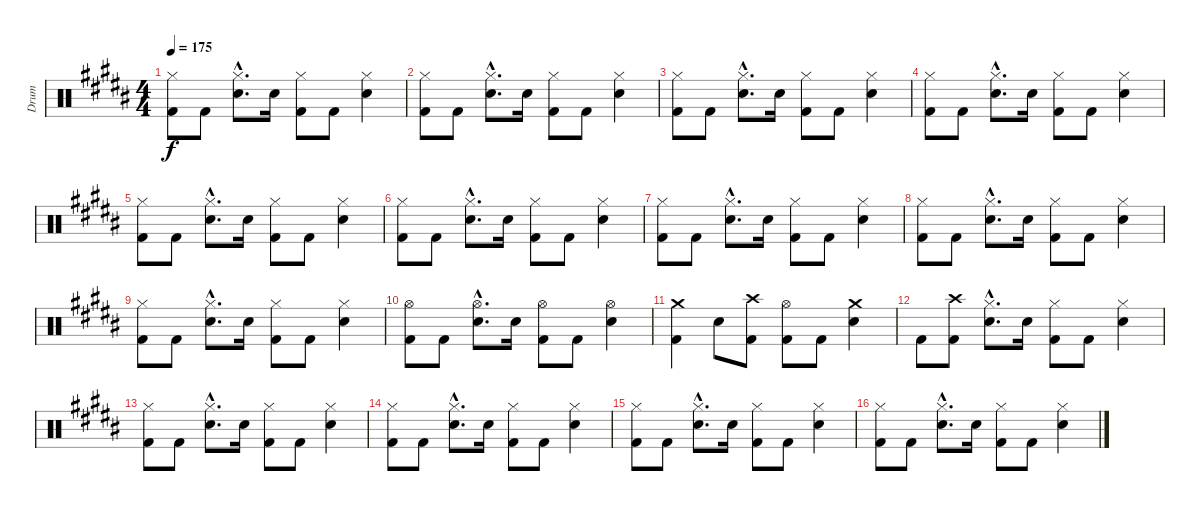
\track ("Drum" "Drum") {instrument percussion}
\staff {score}
\articulation defaults
\ts (4 4)
\tempo 175
\clef neutral
\ks b
("Hi-Hat (closed)" "Kick (hit) 2").8{dy f} "Kick (hit) 2".8 ("Hi-Hat (closed)"{hac} "Snare (hit) 2"{hac}).8{d} "Snare (hit) 2".16 ("Hi-Hat (closed)" "Kick (hit) 2").8 "Kick (hit) 2".8 ("Hi-Hat (closed)" "Snare (hit) 2").4 |
("Hi-Hat (closed)" "Kick (hit) 2").8 "Kick (hit) 2".8 ("Hi-Hat (closed)"{hac} "Snare (hit) 2"{hac}).8{d} "Snare (hit) 2".16 ("Hi-Hat (closed)" "Kick (hit) 2").8 "Kick (hit) 2".8 ("Hi-Hat (closed)" "Snare (hit) 2").4 |
("Hi-Hat (closed)" "Kick (hit) 2").8 "Kick (hit) 2".8 ("Hi-Hat (closed)"{hac} "Snare (hit) 2"{hac}).8{d} "Snare (hit) 2".16 ("Hi-Hat (closed)" "Kick (hit) 2").8 "Kick (hit) 2".8 ("Hi-Hat (closed)" "Snare (hit) 2").4 |
("Hi-Hat (closed)" "Kick (hit) 2").8 "Kick (hit) 2".8 ("Hi-Hat (closed)"{hac} "Snare (hit) 2"{hac}).8{d} "Snare (hit) 2".16 ("Hi-Hat (closed)" "Kick (hit) 2").8 "Kick (hit) 2".8 ("Hi-Hat (closed)" "Snare (hit) 2").4 |
("Hi-Hat (closed)" "Kick (hit) 2").8 "Kick (hit) 2".8 ("Hi-Hat (closed)"{hac} "Snare (hit) 2"{hac}).8{d} "Snare (hit) 2".16 ("Hi-Hat (closed)" "Kick (hit) 2").8 "Kick (hit) 2".8 ("Hi-Hat (closed)" "Snare (hit) 2").4 |
("Hi-Hat (closed)" "Kick (hit) 2").8 "Kick (hit) 2".8 ("Hi-Hat (closed)"{hac} "Snare (hit) 2"{hac}).8{d} "Snare (hit) 2".16 ("Hi-Hat (closed)" "Kick (hit) 2").8 "Kick (hit) 2".8 ("Hi-Hat (closed)" "Snare (hit) 2").4 |
("Hi-Hat (closed)" "Kick (hit) 2").8 "Kick (hit) 2".8 ("Hi-Hat (closed)"{hac} "Snare (hit) 2"{hac}).8{d} "Snare (hit) 2".16 ("Hi-Hat (closed)" "Kick (hit) 2").8 "Kick (hit) 2".8 ("Hi-Hat (closed)" "Snare (hit) 2").4 |
("Hi-Hat (closed)" "Kick (hit) 2").8 "Kick (hit) 2".8 ("Hi-Hat (closed)"{hac} "Snare (hit) 2"{hac}).8{d} "Snare (hit) 2".16 ("Hi-Hat (closed)" "Kick (hit) 2").8 "Kick (hit) 2".8 ("Hi-Hat (closed)" "Snare (hit) 2").4 |
("Hi-Hat (closed)" "Kick (hit) 2").8 "Kick (hit) 2".8 ("Hi-Hat (closed)"{hac} "Snare (hit) 2"{hac}).8{d} "Snare (hit) 2".16 ("Hi-Hat (closed)" "Kick (hit) 2").8 "Kick (hit) 2".8 ("Hi-Hat (closed)" "Snare (hit) 2").4 |
("Hi-Hat (open)" "Kick (hit) 2").8 "Kick (hit) 2".8 ("Hi-Hat (open)"{hac} "Snare (hit) 2"{hac}).8{d} "Snare (hit) 2".16 ("Hi-Hat (open)" "Kick (hit) 2").8 "Kick (hit) 2".8 ("Hi-Hat (open)" "Snare (hit) 2").4 |
("Crash medium (hit)" "Kick (hit) 2").4 "Snare (hit) 2".8 ("Crash high (hit)" "Kick (hit) 2").8 ("Hi-Hat (open)" "Kick (hit) 2").8 "Kick (hit) 2".8 ("Crash medium (hit)" "Snare (hit) 2").4 |
"Kick (hit) 2".8 ("Crash high (hit)" "Kick (hit) 2").8 ("Hi-Hat (closed)"{hac} "Snare (hit) 2"{hac}).8{d} "Snare (hit) 2".16 ("Hi-Hat (closed)" "Kick (hit) 2").8 "Kick (hit) 2".8 ("Hi-Hat (closed)" "Snare (hit) 2").4 |
("Hi-Hat (closed)" "Kick (hit) 2").8 "Kick (hit) 2".8 ("Hi-Hat (closed)"{hac} "Snare (hit) 2"{hac}).8{d} "Snare (hit) 2".16 ("Hi-Hat (closed)" "Kick (hit) 2").8 "Kick (hit) 2".8 ("Hi-Hat (closed)" "Snare (hit) 2").4 |
("Hi-Hat (closed)" "Kick (hit) 2").8 "Kick (hit) 2".8 ("Hi-Hat (closed)"{hac} "Snare (hit) 2"{hac}).8{d} "Snare (hit) 2".16 ("Hi-Hat (closed)" "Kick (hit) 2").8 "Kick (hit) 2".8 ("Hi-Hat (closed)" "Snare (hit) 2").4 |
("Hi-Hat (closed)" "Kick (hit) 2").8 "Kick (hit) 2".8 ("Hi-Hat (closed)"{hac} "Snare (hit) 2"{hac}).8{d} "Snare (hit) 2".16 ("Hi-Hat (closed)" "Kick (hit) 2").8 "Kick (hit) 2".8 ("Hi-Hat (closed)" "Snare (hit) 2").4 |
("Hi-Hat (closed)" "Kick (hit) 2").8 "Kick (hit) 2".8 ("Hi-Hat (closed)"{hac} "Snare (hit) 2"{hac}).8{d} "Snare (hit) 2".16 ("Hi-Hat (closed)" "Kick (hit) 2").8 "Kick (hit) 2".8 ("Hi-Hat (closed)" "Snare (hit) 2").4
